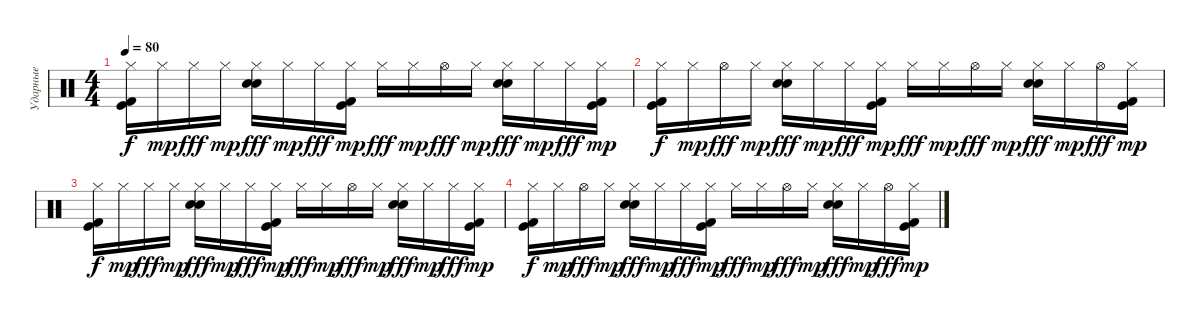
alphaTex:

\track ("Ударные" "Ударные") {instrument percussion}
\staff {score}
\articulation defaults
\ts (4 4)
\tempo 80
\clef neutral
\ks c
("Kick (hit) 2" "Kick (hit)" "Hi-Hat (closed)").16{dy f} "Hi-Hat (closed)".16{dy mp} "Hi-Hat (closed)".16{dy fff} "Hi-Hat (closed)".16{dy mp} ("Snare (hit) 2" "Electric Snare (hit)" "Hi-Hat (closed)").16{dy fff} "Hi-Hat (closed)".16{dy mp} "Hi-Hat (closed)".16{dy fff} ("Kick (hit) 2" "Kick (hit)" "Hi-Hat (closed)").16{dy mp} "Hi-Hat (closed)".16{dy fff} "Hi-Hat (closed)".16{dy mp} "Hi-Hat (open)".16{dy fff} "Hi-Hat (closed)".16{dy mp} ("Snare (hit) 2" "Electric Snare (hit)" "Hi-Hat (closed)").16{dy fff} "Hi-Hat (closed)".16{dy mp} "Hi-Hat (closed)".16{dy fff} ("Kick (hit) 2" "Kick (hit)" "Hi-Hat (closed)").16{dy mp} |
("Kick (hit) 2" "Kick (hit)" "Hi-Hat (closed)").16{dy f} "Hi-Hat (closed)".16{dy mp} "Hi-Hat (open)".16{dy fff} "Hi-Hat (closed)".16{dy mp} ("Snare (hit) 2" "Electric Snare (hit)" "Hi-Hat (closed)").16{dy fff} "Hi-Hat (closed)".16{dy mp} "Hi-Hat (closed)".16{dy fff} ("Kick (hit) 2" "Kick (hit)" "Hi-Hat (closed)").16{dy mp} "Hi-Hat (closed)".16{dy fff} "Hi-Hat (closed)".16{dy mp} "Hi-Hat (open)".16{dy fff} "Hi-Hat (closed)".16{dy mp} ("Snare (hit) 2" "Electric Snare (hit)" "Hi-Hat (closed)").16{dy fff} "Hi-Hat (closed)".16{dy mp} "Hi-Hat (open)".16{dy fff} ("Kick (hit) 2" "Kick (hit)" "Hi-Hat (closed)").16{dy mp} |
("Kick (hit) 2" "Kick (hit)" "Hi-Hat (closed)").16{dy f} "Hi-Hat (closed)".16{dy mp} "Hi-Hat (closed)".16{dy fff} "Hi-Hat (closed)".16{dy mp} ("Snare (hit) 2" "Electric Snare (hit)" "Hi-Hat (closed)").16{dy fff} "Hi-Hat (closed)".16{dy mp} "Hi-Hat (closed)".16{dy fff} ("Kick (hit) 2" "Kick (hit)" "Hi-Hat (closed)").16{dy mp} "Hi-Hat (closed)".16{dy fff} "Hi-Hat (closed)".16{dy mp} "Hi-Hat (open)".16{dy fff} "Hi-Hat (closed)".16{dy mp} ("Snare (hit) 2" "Electric Snare (hit)" "Hi-Hat (closed)").16{dy fff} "Hi-Hat (closed)".16{dy mp} "Hi-Hat (closed)".16{dy fff} ("Kick (hit) 2" "Kick (hit)" "Hi-Hat (closed)").16{dy mp} |
("Kick (hit) 2" "Kick (hit)" "Hi-Hat (closed)").16{dy f} "Hi-Hat (closed)".16{dy mp} "Hi-Hat (open)".16{dy fff} "Hi-Hat (closed)".16{dy mp} ("Snare (hit) 2" "Electric Snare (hit)" "Hi-Hat (closed)").16{dy fff} "Hi-Hat (closed)".16{dy mp} "Hi-Hat (closed)".16{dy fff} ("Kick (hit) 2" "Kick (hit)" "Hi-Hat (closed)").16{dy mp} "Hi-Hat (closed)".16{dy fff} "Hi-Hat (closed)".16{dy mp} "Hi-Hat (open)".16{dy fff} "Hi-Hat (closed)".16{dy mp} ("Snare (hit) 2" "Electric Snare (hit)" "Hi-Hat (closed)").16{dy fff} "Hi-Hat (closed)".16{dy mp} "Hi-Hat (open)".16{dy fff} ("Kick (hit) 2" "Kick (hit)" "Hi-Hat (closed)").16{dy mp}
